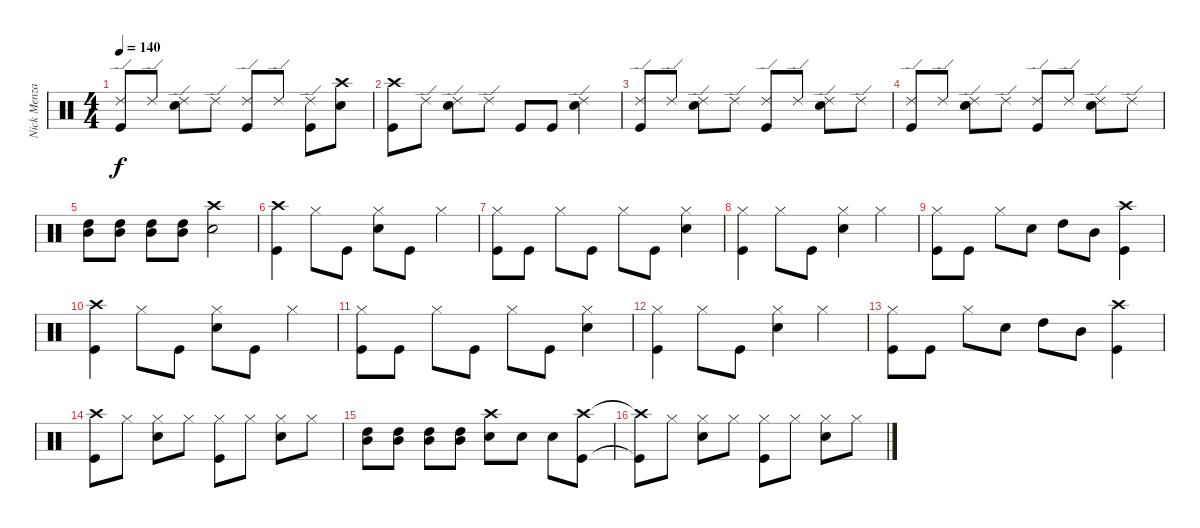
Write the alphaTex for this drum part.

\track ("Nick Menza (Drums)" "Nick Menza") {instrument percussion}
\staff {score}
\articulation defaults
\ts (4 4)
\tempo 140
\clef neutral
\ks c
("Ride (edge) 2" "Kick (hit)").8{dy f} "Ride (edge) 2".8 ("Ride (edge) 2" "Snare (hit) 2").8 "Ride (edge) 2".8 ("Ride (edge) 2" "Kick (hit)").8 "Ride (edge) 2".8 ("Ride (edge) 2" "Kick (hit)").8 ("Crash high (hit)" "Snare (hit) 2").8 |
("Crash high (hit)" "Kick (hit)").8 "Ride (edge) 2".8 ("Ride (edge) 2" "Snare (hit) 2").8 "Ride (edge) 2".8 "Kick (hit)".8 "Kick (hit)".8 ("Ride (edge) 2" "Snare (hit) 2").4 |
("Ride (edge) 2" "Kick (hit)").8 "Ride (edge) 2".8 ("Ride (edge) 2" "Snare (hit) 2").8 "Ride (edge) 2".8 ("Ride (edge) 2" "Kick (hit)").8 "Ride (edge) 2".8 ("Ride (edge) 2" "Snare (hit) 2").8 "Ride (edge) 2".8 |
("Ride (edge) 2" "Kick (hit)").8 "Ride (edge) 2".8 ("Ride (edge) 2" "Snare (hit) 2").8 "Ride (edge) 2".8 ("Ride (edge) 2" "Kick (hit)").8 "Ride (edge) 2".8 ("Ride (edge) 2" "Snare (hit) 2").8 "Ride (edge) 2".8 |
("High Tom (hit)" "Mid Tom (hit)").8 ("High Tom (hit)" "Mid Tom (hit)").8 ("High Tom (hit)" "Mid Tom (hit)").8 ("High Tom (hit)" "Mid Tom (hit)").8 ("Crash high (hit)" "Snare (hit) 2").2 |
("Crash high (hit)" "Kick (hit)").4 "Hi-Hat (closed)".8 "Kick (hit)".8 ("Hi-Hat (closed)" "Snare (hit) 2").8 "Kick (hit)".8 "Hi-Hat (closed)".4 |
("Hi-Hat (closed)" "Kick (hit)").8 "Kick (hit)".8 "Hi-Hat (closed)".8 "Kick (hit)".8 "Hi-Hat (closed)".8 "Kick (hit)".8 ("Hi-Hat (closed)" "Snare (hit) 2").4 |
("Hi-Hat (closed)" "Kick (hit)").4 "Hi-Hat (closed)".8 "Kick (hit)".8 ("Hi-Hat (closed)" "Snare (hit) 2").4 "Hi-Hat (closed)".4 |
("Hi-Hat (closed)" "Kick (hit)").8 "Kick (hit)".8 "Hi-Hat (closed)".8 "Snare (hit) 2".8 "High Tom (hit)".8 "Mid Tom (hit)".8 ("Crash high (hit)" "Kick (hit)").4 |
("Crash high (hit)" "Kick (hit)").4 "Hi-Hat (closed)".8 "Kick (hit)".8 ("Hi-Hat (closed)" "Snare (hit) 2").8 "Kick (hit)".8 "Hi-Hat (closed)".4 |
("Hi-Hat (closed)" "Kick (hit)").8 "Kick (hit)".8 "Hi-Hat (closed)".8 "Kick (hit)".8 "Hi-Hat (closed)".8 "Kick (hit)".8 ("Hi-Hat (closed)" "Snare (hit) 2").4 |
("Hi-Hat (closed)" "Kick (hit)").4 "Hi-Hat (closed)".8 "Kick (hit)".8 ("Hi-Hat (closed)" "Snare (hit) 2").4 "Hi-Hat (closed)".4 |
("Hi-Hat (closed)" "Kick (hit)").8 "Kick (hit)".8 "Hi-Hat (closed)".8 "Snare (hit) 2".8 "High Tom (hit)".8 "Mid Tom (hit)".8 ("Crash high (hit)" "Kick (hit)").4 |
("Crash high (hit)" "Kick (hit)").8 "Hi-Hat (closed)".8 ("Hi-Hat (closed)" "Snare (hit) 2").8 "Hi-Hat (closed)".8 ("Hi-Hat (closed)" "Kick (hit)").8 "Hi-Hat (closed)".8 ("Hi-Hat (closed)" "Snare (hit) 2").8 "Hi-Hat (closed)".8 |
("High Tom (hit)" "Mid Tom (hit)").8 ("High Tom (hit)" "Mid Tom (hit)").8 ("High Tom (hit)" "Mid Tom (hit)").8 ("High Tom (hit)" "Mid Tom (hit)").8 ("Crash high (hit)" "Snare (hit) 2").8 "Snare (hit) 2".8 "Snare (hit) 2".8 ("Crash high (hit)" "Kick (hit)").8 |
("Crash high (hit)"{t} "Kick (hit)"{t}).8 "Hi-Hat (closed)".8 ("Hi-Hat (closed)" "Snare (hit) 2").8 "Hi-Hat (closed)".8 ("Hi-Hat (closed)" "Kick (hit)").8 "Hi-Hat (closed)".8 ("Hi-Hat (closed)" "Snare (hit) 2").8 "Hi-Hat (closed)".8
